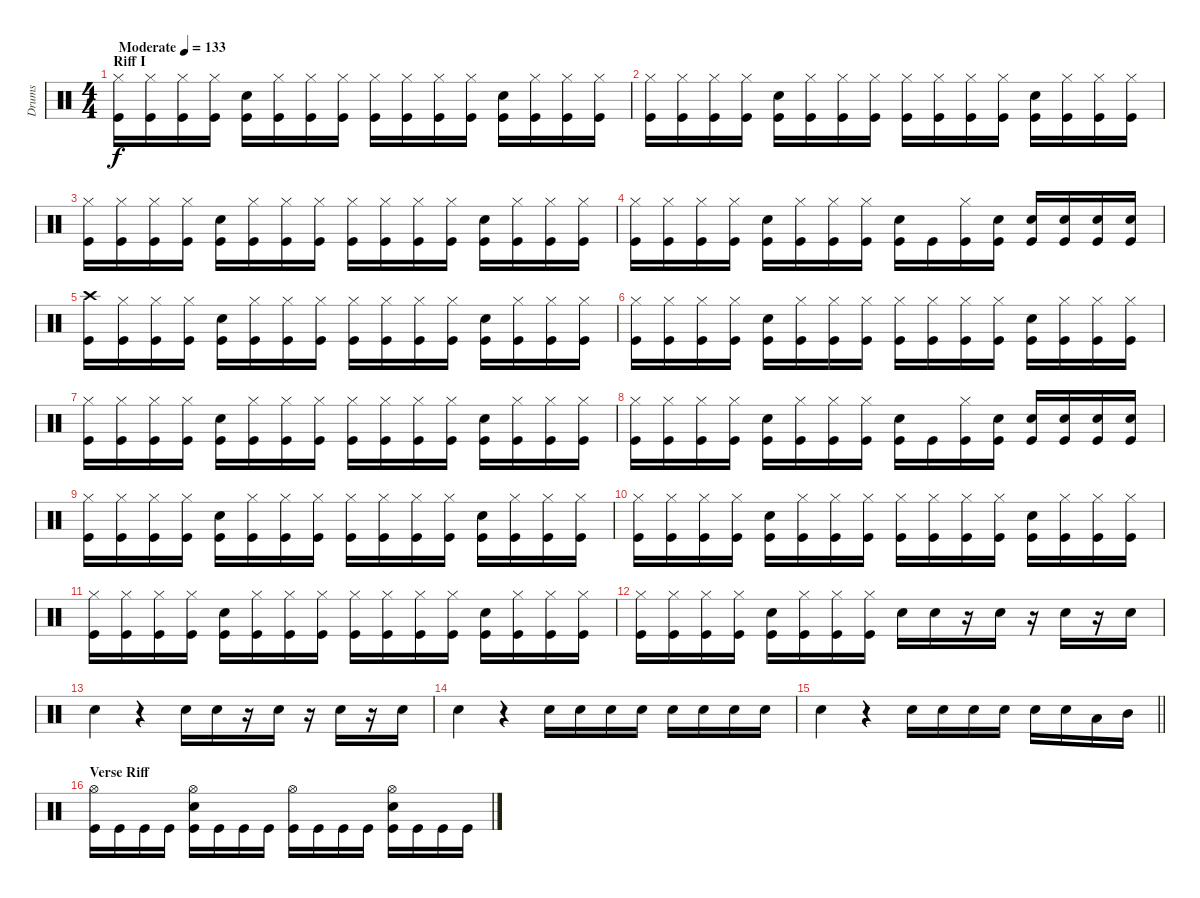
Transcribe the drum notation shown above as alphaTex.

\track ("Drums" "Drums") {instrument percussion}
\staff {score}
\articulation defaults
\ts (4 4)
\section ("" "Riff I")
\tempo (133 "Moderate")
\clef neutral
\ks c
("Hi-Hat (closed)" "Kick (hit)").16{dy f} ("Hi-Hat (closed)" "Kick (hit)").16 ("Hi-Hat (closed)" "Kick (hit)").16 ("Hi-Hat (closed)" "Kick (hit)").16 ("Electric Snare (hit)" "Kick (hit)").16 ("Hi-Hat (closed)" "Kick (hit)").16 ("Hi-Hat (closed)" "Kick (hit)").16 ("Hi-Hat (closed)" "Kick (hit)").16 ("Hi-Hat (closed)" "Kick (hit)").16 ("Hi-Hat (closed)" "Kick (hit)").16 ("Hi-Hat (closed)" "Kick (hit)").16 ("Hi-Hat (closed)" "Kick (hit)").16 ("Electric Snare (hit)" "Kick (hit)").16 ("Hi-Hat (closed)" "Kick (hit)").16 ("Hi-Hat (closed)" "Kick (hit)").16 ("Hi-Hat (closed)" "Kick (hit)").16 |
("Hi-Hat (closed)" "Kick (hit)").16 ("Hi-Hat (closed)" "Kick (hit)").16 ("Hi-Hat (closed)" "Kick (hit)").16 ("Hi-Hat (closed)" "Kick (hit)").16 ("Electric Snare (hit)" "Kick (hit)").16 ("Hi-Hat (closed)" "Kick (hit)").16 ("Hi-Hat (closed)" "Kick (hit)").16 ("Hi-Hat (closed)" "Kick (hit)").16 ("Hi-Hat (closed)" "Kick (hit)").16 ("Hi-Hat (closed)" "Kick (hit)").16 ("Hi-Hat (closed)" "Kick (hit)").16 ("Hi-Hat (closed)" "Kick (hit)").16 ("Electric Snare (hit)" "Kick (hit)").16 ("Hi-Hat (closed)" "Kick (hit)").16 ("Hi-Hat (closed)" "Kick (hit)").16 ("Hi-Hat (closed)" "Kick (hit)").16 |
("Hi-Hat (closed)" "Kick (hit)").16 ("Hi-Hat (closed)" "Kick (hit)").16 ("Hi-Hat (closed)" "Kick (hit)").16 ("Hi-Hat (closed)" "Kick (hit)").16 ("Electric Snare (hit)" "Kick (hit)").16 ("Hi-Hat (closed)" "Kick (hit)").16 ("Hi-Hat (closed)" "Kick (hit)").16 ("Hi-Hat (closed)" "Kick (hit)").16 ("Hi-Hat (closed)" "Kick (hit)").16 ("Hi-Hat (closed)" "Kick (hit)").16 ("Hi-Hat (closed)" "Kick (hit)").16 ("Hi-Hat (closed)" "Kick (hit)").16 ("Electric Snare (hit)" "Kick (hit)").16 ("Hi-Hat (closed)" "Kick (hit)").16 ("Hi-Hat (closed)" "Kick (hit)").16 ("Hi-Hat (closed)" "Kick (hit)").16 |
("Hi-Hat (closed)" "Kick (hit)").16 ("Hi-Hat (closed)" "Kick (hit)").16 ("Hi-Hat (closed)" "Kick (hit)").16 ("Hi-Hat (closed)" "Kick (hit)").16 ("Electric Snare (hit)" "Kick (hit)").16 ("Hi-Hat (closed)" "Kick (hit)").16 ("Hi-Hat (closed)" "Kick (hit)").16 ("Hi-Hat (closed)" "Kick (hit)").16 ("Electric Snare (hit)" "Kick (hit)").16 "Kick (hit)".16 ("Hi-Hat (closed)" "Kick (hit)").16 ("Electric Snare (hit)" "Kick (hit)").16 ("Electric Snare (hit)" "Kick (hit)").16 ("Electric Snare (hit)" "Kick (hit)").16 ("Electric Snare (hit)" "Kick (hit)").16 ("Electric Snare (hit)" "Kick (hit)").16 |
("Crash high (hit)" "Kick (hit)").16 ("Hi-Hat (closed)" "Kick (hit)").16 ("Hi-Hat (closed)" "Kick (hit)").16 ("Hi-Hat (closed)" "Kick (hit)").16 ("Electric Snare (hit)" "Kick (hit)").16 ("Hi-Hat (closed)" "Kick (hit)").16 ("Hi-Hat (closed)" "Kick (hit)").16 ("Hi-Hat (closed)" "Kick (hit)").16 ("Hi-Hat (closed)" "Kick (hit)").16 ("Hi-Hat (closed)" "Kick (hit)").16 ("Hi-Hat (closed)" "Kick (hit)").16 ("Hi-Hat (closed)" "Kick (hit)").16 ("Electric Snare (hit)" "Kick (hit)").16 ("Hi-Hat (closed)" "Kick (hit)").16 ("Hi-Hat (closed)" "Kick (hit)").16 ("Hi-Hat (closed)" "Kick (hit)").16 |
("Hi-Hat (closed)" "Kick (hit)").16 ("Hi-Hat (closed)" "Kick (hit)").16 ("Hi-Hat (closed)" "Kick (hit)").16 ("Hi-Hat (closed)" "Kick (hit)").16 ("Electric Snare (hit)" "Kick (hit)").16 ("Hi-Hat (closed)" "Kick (hit)").16 ("Hi-Hat (closed)" "Kick (hit)").16 ("Hi-Hat (closed)" "Kick (hit)").16 ("Hi-Hat (closed)" "Kick (hit)").16 ("Hi-Hat (closed)" "Kick (hit)").16 ("Hi-Hat (closed)" "Kick (hit)").16 ("Hi-Hat (closed)" "Kick (hit)").16 ("Electric Snare (hit)" "Kick (hit)").16 ("Hi-Hat (closed)" "Kick (hit)").16 ("Hi-Hat (closed)" "Kick (hit)").16 ("Hi-Hat (closed)" "Kick (hit)").16 |
("Hi-Hat (closed)" "Kick (hit)").16 ("Hi-Hat (closed)" "Kick (hit)").16 ("Hi-Hat (closed)" "Kick (hit)").16 ("Hi-Hat (closed)" "Kick (hit)").16 ("Electric Snare (hit)" "Kick (hit)").16 ("Hi-Hat (closed)" "Kick (hit)").16 ("Hi-Hat (closed)" "Kick (hit)").16 ("Hi-Hat (closed)" "Kick (hit)").16 ("Hi-Hat (closed)" "Kick (hit)").16 ("Hi-Hat (closed)" "Kick (hit)").16 ("Hi-Hat (closed)" "Kick (hit)").16 ("Hi-Hat (closed)" "Kick (hit)").16 ("Electric Snare (hit)" "Kick (hit)").16 ("Hi-Hat (closed)" "Kick (hit)").16 ("Hi-Hat (closed)" "Kick (hit)").16 ("Hi-Hat (closed)" "Kick (hit)").16 |
("Hi-Hat (closed)" "Kick (hit)").16 ("Hi-Hat (closed)" "Kick (hit)").16 ("Hi-Hat (closed)" "Kick (hit)").16 ("Hi-Hat (closed)" "Kick (hit)").16 ("Electric Snare (hit)" "Kick (hit)").16 ("Hi-Hat (closed)" "Kick (hit)").16 ("Hi-Hat (closed)" "Kick (hit)").16 ("Hi-Hat (closed)" "Kick (hit)").16 ("Electric Snare (hit)" "Kick (hit)").16 "Kick (hit)".16 ("Hi-Hat (closed)" "Kick (hit)").16 ("Electric Snare (hit)" "Kick (hit)").16 ("Electric Snare (hit)" "Kick (hit)").16 ("Electric Snare (hit)" "Kick (hit)").16 ("Electric Snare (hit)" "Kick (hit)").16 ("Electric Snare (hit)" "Kick (hit)").16 |
("Hi-Hat (closed)" "Kick (hit)").16 ("Hi-Hat (closed)" "Kick (hit)").16 ("Hi-Hat (closed)" "Kick (hit)").16 ("Hi-Hat (closed)" "Kick (hit)").16 ("Electric Snare (hit)" "Kick (hit)").16 ("Hi-Hat (closed)" "Kick (hit)").16 ("Hi-Hat (closed)" "Kick (hit)").16 ("Hi-Hat (closed)" "Kick (hit)").16 ("Hi-Hat (closed)" "Kick (hit)").16 ("Hi-Hat (closed)" "Kick (hit)").16 ("Hi-Hat (closed)" "Kick (hit)").16 ("Hi-Hat (closed)" "Kick (hit)").16 ("Electric Snare (hit)" "Kick (hit)").16 ("Hi-Hat (closed)" "Kick (hit)").16 ("Hi-Hat (closed)" "Kick (hit)").16 ("Hi-Hat (closed)" "Kick (hit)").16 |
("Hi-Hat (closed)" "Kick (hit)").16 ("Hi-Hat (closed)" "Kick (hit)").16 ("Hi-Hat (closed)" "Kick (hit)").16 ("Hi-Hat (closed)" "Kick (hit)").16 ("Electric Snare (hit)" "Kick (hit)").16 ("Hi-Hat (closed)" "Kick (hit)").16 ("Hi-Hat (closed)" "Kick (hit)").16 ("Hi-Hat (closed)" "Kick (hit)").16 ("Hi-Hat (closed)" "Kick (hit)").16 ("Hi-Hat (closed)" "Kick (hit)").16 ("Hi-Hat (closed)" "Kick (hit)").16 ("Hi-Hat (closed)" "Kick (hit)").16 ("Electric Snare (hit)" "Kick (hit)").16 ("Hi-Hat (closed)" "Kick (hit)").16 ("Hi-Hat (closed)" "Kick (hit)").16 ("Hi-Hat (closed)" "Kick (hit)").16 |
("Hi-Hat (closed)" "Kick (hit)").16 ("Hi-Hat (closed)" "Kick (hit)").16 ("Hi-Hat (closed)" "Kick (hit)").16 ("Hi-Hat (closed)" "Kick (hit)").16 ("Electric Snare (hit)" "Kick (hit)").16 ("Hi-Hat (closed)" "Kick (hit)").16 ("Hi-Hat (closed)" "Kick (hit)").16 ("Hi-Hat (closed)" "Kick (hit)").16 ("Hi-Hat (closed)" "Kick (hit)").16 ("Hi-Hat (closed)" "Kick (hit)").16 ("Hi-Hat (closed)" "Kick (hit)").16 ("Hi-Hat (closed)" "Kick (hit)").16 ("Electric Snare (hit)" "Kick (hit)").16 ("Hi-Hat (closed)" "Kick (hit)").16 ("Hi-Hat (closed)" "Kick (hit)").16 ("Hi-Hat (closed)" "Kick (hit)").16 |
("Hi-Hat (closed)" "Kick (hit)").16 ("Hi-Hat (closed)" "Kick (hit)").16 ("Hi-Hat (closed)" "Kick (hit)").16 ("Hi-Hat (closed)" "Kick (hit)").16 ("Electric Snare (hit)" "Kick (hit)").16 ("Hi-Hat (closed)" "Kick (hit)").16 ("Hi-Hat (closed)" "Kick (hit)").16 ("Hi-Hat (closed)" "Kick (hit)").16 "Electric Snare (hit)".16 "Electric Snare (hit)".16 r.16 "Electric Snare (hit)".16 r.16 "Electric Snare (hit)".16 r.16 "Electric Snare (hit)".16 |
"Electric Snare (hit)".4 r.4 "Electric Snare (hit)".16 "Electric Snare (hit)".16 r.16 "Electric Snare (hit)".16 r.16 "Electric Snare (hit)".16 r.16 "Electric Snare (hit)".16 |
"Electric Snare (hit)".4 r.4 "Electric Snare (hit)".16 "Electric Snare (hit)".16 "Electric Snare (hit)".16 "Electric Snare (hit)".16 "Electric Snare (hit)".16 "Electric Snare (hit)".16 "Electric Snare (hit)".16 "Electric Snare (hit)".16 |
\barLineRight lightlight "Electric Snare (hit)".4
r.4 "Electric Snare (hit)".16 "Electric Snare (hit)".16 "Electric Snare (hit)".16 "Electric Snare (hit)".16 "Electric Snare (hit)".16 "Electric Snare (hit)".16 "Low Tom (hit)".16 "Mid Tom (hit)".16 |
\section ("" "Verse Riff")
("Hi-Hat (open)" "Kick (hit)").16 "Kick (hit)".16 "Kick (hit)".16 "Kick (hit)".16 ("Hi-Hat (open)" "Electric Snare (hit)" "Kick (hit)").16 "Kick (hit)".16 "Kick (hit)".16 "Kick (hit)".16 ("Hi-Hat (open)" "Kick (hit)").16 "Kick (hit)".16 "Kick (hit)".16 "Kick (hit)".16 ("Hi-Hat (open)" "Electric Snare (hit)" "Kick (hit)").16 "Kick (hit)".16 "Kick (hit)".16 "Kick (hit)".16
